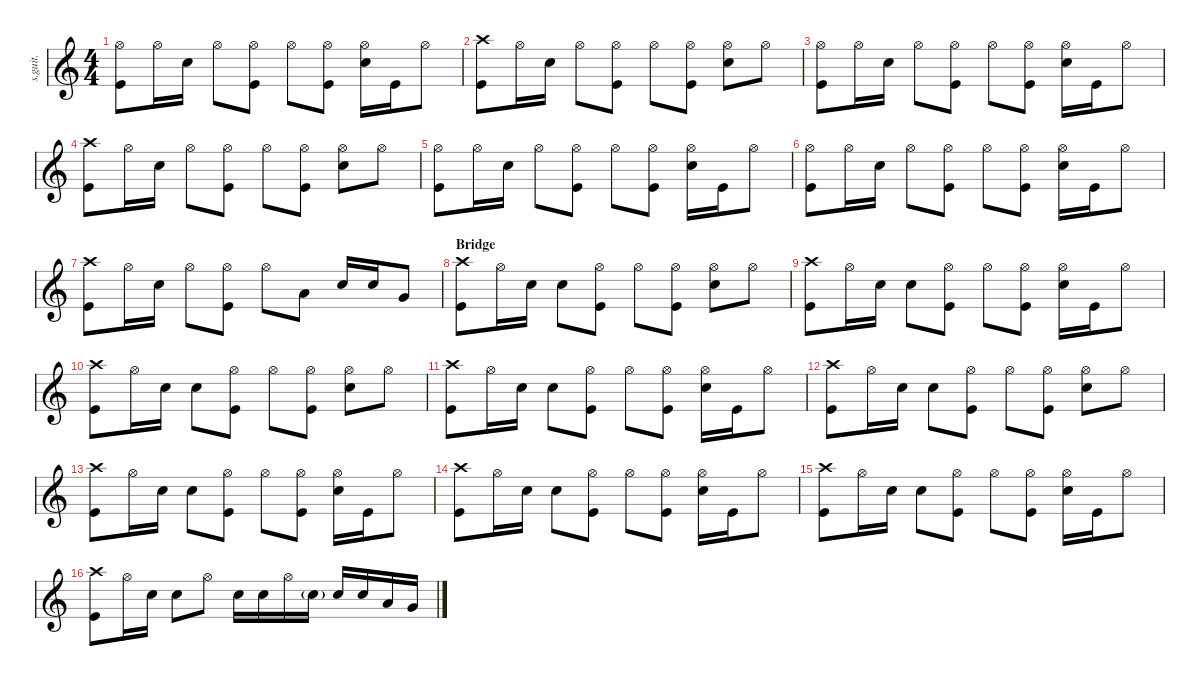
\defaultSystemsLayout 4
\hideDynamics
\bracketExtendMode nobrackets
\track ("Rob Bourdon" "s.guit.") {instrument percussion}
\staff {score}
\articulation defaults
\ts (4 4)
\tempo (110 hide)
\clef g2
\ks c
("Hi-Hat (open)" "Kick (hit)").8{dy f} "Hi-Hat (open)".16 "Snare (hit) 2".16 "Hi-Hat (open)".8 ("Hi-Hat (open)" "Kick (hit)").8 "Hi-Hat (open)".8 ("Hi-Hat (open)" "Kick (hit)").8 ("Hi-Hat (open)" "Snare (hit) 2").16 "Kick (hit)".16 "Hi-Hat (open)".8 |
("Crash high (hit)" "Kick (hit)").8 "Hi-Hat (open)".16 "Snare (hit) 2".16 "Hi-Hat (open)".8 ("Hi-Hat (open)" "Kick (hit)").8 "Hi-Hat (open)".8 ("Hi-Hat (open)" "Kick (hit)").8 ("Hi-Hat (open)" "Snare (hit) 2").8 "Hi-Hat (open)".8 |
("Hi-Hat (open)" "Kick (hit)").8 "Hi-Hat (open)".16 "Snare (hit) 2".16 "Hi-Hat (open)".8 ("Hi-Hat (open)" "Kick (hit)").8 "Hi-Hat (open)".8 ("Hi-Hat (open)" "Kick (hit)").8 ("Hi-Hat (open)" "Snare (hit) 2").16 "Kick (hit)".16 "Hi-Hat (open)".8 |
("Crash high (hit)" "Kick (hit)").8 "Hi-Hat (open)".16 "Snare (hit) 2".16 "Hi-Hat (open)".8 ("Hi-Hat (open)" "Kick (hit)").8 "Hi-Hat (open)".8 ("Hi-Hat (open)" "Kick (hit)").8 ("Hi-Hat (open)" "Snare (hit) 2").8 "Hi-Hat (open)".8 |
("Hi-Hat (open)" "Kick (hit)").8 "Hi-Hat (open)".16 "Snare (hit) 2".16 "Hi-Hat (open)".8 ("Hi-Hat (open)" "Kick (hit)").8 "Hi-Hat (open)".8 ("Hi-Hat (open)" "Kick (hit)").8 ("Hi-Hat (open)" "Snare (hit) 2").16 "Kick (hit)".16 "Hi-Hat (open)".8 |
("Hi-Hat (open)" "Kick (hit)").8 "Hi-Hat (open)".16 "Snare (hit) 2".16 "Hi-Hat (open)".8 ("Hi-Hat (open)" "Kick (hit)").8 "Hi-Hat (open)".8 ("Hi-Hat (open)" "Kick (hit)").8 ("Hi-Hat (open)" "Snare (hit) 2").16 "Kick (hit)".16 "Hi-Hat (open)".8 |
("Crash high (hit)" "Kick (hit)").8 "Hi-Hat (open)".16 "Snare (hit) 2".16 "Hi-Hat (open)".8 ("Hi-Hat (open)" "Kick (hit)").8 "Hi-Hat (open)".8 "Low Tom (hit)".8 "Snare (hit) 2".16 "Snare (hit) 2".16 "Very Low Tom (hit)".8 |
\section ("" "Bridge")
("Crash high (hit)" "Kick (hit)").8 "Hi-Hat (open)".16 "Snare (hit) 2".16 "Snare (hit) 2".8 ("Hi-Hat (open)" "Kick (hit)").8 "Hi-Hat (open)".8 ("Hi-Hat (open)" "Kick (hit)").8 ("Hi-Hat (open)" "Snare (hit) 2").8 "Hi-Hat (open)".8 |
("Crash high (hit)" "Kick (hit)").8 "Hi-Hat (open)".16 "Snare (hit) 2".16 "Snare (hit) 2".8 ("Hi-Hat (open)" "Kick (hit)").8 "Hi-Hat (open)".8 ("Hi-Hat (open)" "Kick (hit)").8 ("Hi-Hat (open)" "Snare (hit) 2").16 "Kick (hit)".16 "Hi-Hat (open)".8 |
("Crash high (hit)" "Kick (hit)").8 "Hi-Hat (open)".16 "Snare (hit) 2".16 "Snare (hit) 2".8 ("Hi-Hat (open)" "Kick (hit)").8 "Hi-Hat (open)".8 ("Hi-Hat (open)" "Kick (hit)").8 ("Hi-Hat (open)" "Snare (hit) 2").8 "Hi-Hat (open)".8 |
("Crash high (hit)" "Kick (hit)").8 "Hi-Hat (open)".16 "Snare (hit) 2".16 "Snare (hit) 2".8 ("Hi-Hat (open)" "Kick (hit)").8 "Hi-Hat (open)".8 ("Hi-Hat (open)" "Kick (hit)").8 ("Hi-Hat (open)" "Snare (hit) 2").16 "Kick (hit)".16 "Hi-Hat (open)".8 |
("Crash high (hit)" "Kick (hit)").8 "Hi-Hat (open)".16 "Snare (hit) 2".16 "Snare (hit) 2".8 ("Hi-Hat (open)" "Kick (hit)").8 "Hi-Hat (open)".8 ("Hi-Hat (open)" "Kick (hit)").8 ("Hi-Hat (open)" "Snare (hit) 2").8 "Hi-Hat (open)".8 |
("Crash high (hit)" "Kick (hit)").8 "Hi-Hat (open)".16 "Snare (hit) 2".16 "Snare (hit) 2".8 ("Hi-Hat (open)" "Kick (hit)").8 "Hi-Hat (open)".8 ("Hi-Hat (open)" "Kick (hit)").8 ("Hi-Hat (open)" "Snare (hit) 2").16 "Kick (hit)".16 "Hi-Hat (open)".8 |
("Crash high (hit)" "Kick (hit)").8 "Hi-Hat (open)".16 "Snare (hit) 2".16 "Snare (hit) 2".8 ("Hi-Hat (open)" "Kick (hit)").8 "Hi-Hat (open)".8 ("Hi-Hat (open)" "Kick (hit)").8 ("Hi-Hat (open)" "Snare (hit) 2").16 "Kick (hit)".16 "Hi-Hat (open)".8 |
("Crash high (hit)" "Kick (hit)").8 "Hi-Hat (open)".16 "Snare (hit) 2".16 "Snare (hit) 2".8 ("Hi-Hat (open)" "Kick (hit)").8 "Hi-Hat (open)".8 ("Hi-Hat (open)" "Kick (hit)").8 ("Hi-Hat (open)" "Snare (hit) 2").16 "Kick (hit)".16 "Hi-Hat (open)".8 |
("Crash high (hit)" "Kick (hit)").8 "Hi-Hat (open)".16 "Snare (hit) 2".16 "Snare (hit) 2".8 "Hi-Hat (open)".8 "Snare (hit) 2".16 "Snare (hit) 2".16 "Hi-Hat (open)".16 "Snare (hit) 2"{g}.16{dy ppp} "Snare (hit) 2".16{dy f} "Snare (hit) 2".16 "Low Tom (hit)".16 "Very Low Tom (hit)".16
